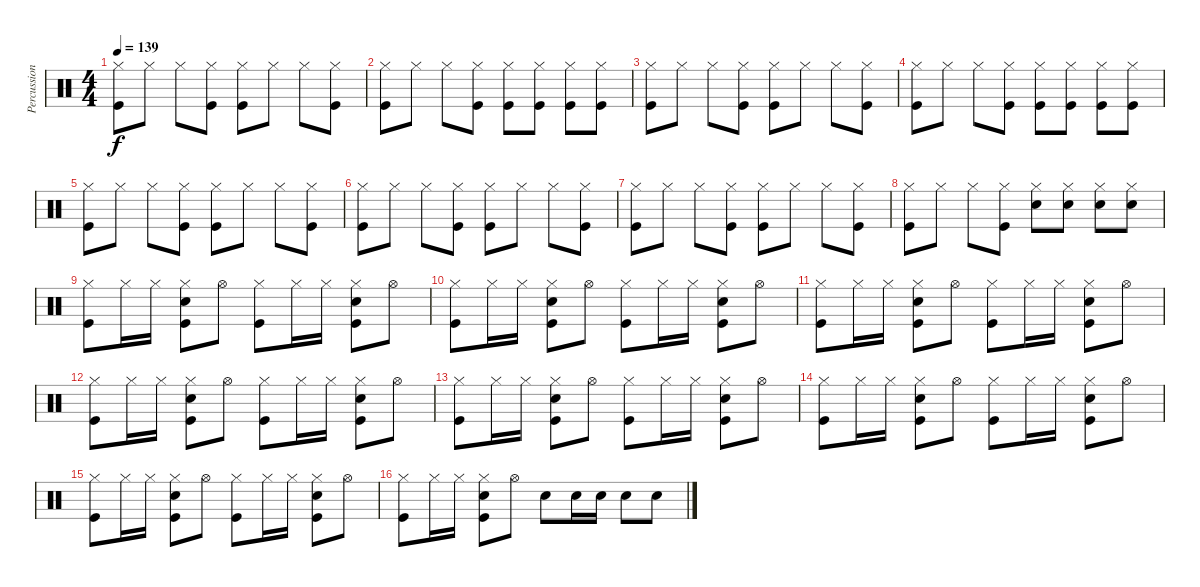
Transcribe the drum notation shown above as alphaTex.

\track ("Percussion" "Percussion") {instrument percussion}
\staff {score}
\articulation defaults
\ts (4 4)
\tempo 139
\clef neutral
\ks c
("Hi-Hat (closed)" "Kick (hit)").8{dy f} "Hi-Hat (closed)".8 "Hi-Hat (closed)".8 ("Hi-Hat (closed)" "Kick (hit)").8 ("Hi-Hat (closed)" "Kick (hit)").8 "Hi-Hat (closed)".8 "Hi-Hat (closed)".8 ("Hi-Hat (closed)" "Kick (hit)").8 |
("Hi-Hat (closed)" "Kick (hit)").8 "Hi-Hat (closed)".8 "Hi-Hat (closed)".8 ("Hi-Hat (closed)" "Kick (hit)").8 ("Hi-Hat (closed)" "Kick (hit)").8 ("Hi-Hat (closed)" "Kick (hit)").8 ("Hi-Hat (closed)" "Kick (hit)").8 ("Hi-Hat (closed)" "Kick (hit)").8 |
("Hi-Hat (closed)" "Kick (hit)").8 "Hi-Hat (closed)".8 "Hi-Hat (closed)".8 ("Hi-Hat (closed)" "Kick (hit)").8 ("Hi-Hat (closed)" "Kick (hit)").8 "Hi-Hat (closed)".8 "Hi-Hat (closed)".8 ("Hi-Hat (closed)" "Kick (hit)").8 |
("Hi-Hat (closed)" "Kick (hit)").8 "Hi-Hat (closed)".8 "Hi-Hat (closed)".8 ("Hi-Hat (closed)" "Kick (hit)").8 ("Hi-Hat (closed)" "Kick (hit)").8 ("Hi-Hat (closed)" "Kick (hit)").8 ("Hi-Hat (closed)" "Kick (hit)").8 ("Hi-Hat (closed)" "Kick (hit)").8 |
("Hi-Hat (closed)" "Kick (hit)").8 "Hi-Hat (closed)".8 "Hi-Hat (closed)".8 ("Hi-Hat (closed)" "Kick (hit)").8 ("Hi-Hat (closed)" "Kick (hit)").8 "Hi-Hat (closed)".8 "Hi-Hat (closed)".8 ("Hi-Hat (closed)" "Kick (hit)").8 |
("Hi-Hat (closed)" "Kick (hit)").8 "Hi-Hat (closed)".8 "Hi-Hat (closed)".8 ("Hi-Hat (closed)" "Kick (hit)").8 ("Hi-Hat (closed)" "Kick (hit)").8 "Hi-Hat (closed)".8 "Hi-Hat (closed)".8 ("Hi-Hat (closed)" "Kick (hit)").8 |
("Hi-Hat (closed)" "Kick (hit)").8 "Hi-Hat (closed)".8 "Hi-Hat (closed)".8 ("Hi-Hat (closed)" "Kick (hit)").8 ("Hi-Hat (closed)" "Kick (hit)").8 "Hi-Hat (closed)".8 "Hi-Hat (closed)".8 ("Hi-Hat (closed)" "Kick (hit)").8 |
("Hi-Hat (closed)" "Kick (hit)").8 "Hi-Hat (closed)".8 "Hi-Hat (closed)".8 ("Hi-Hat (closed)" "Kick (hit)").8 ("Hi-Hat (closed)" "Snare (hit) 2").8 ("Hi-Hat (closed)" "Snare (hit) 2").8 ("Hi-Hat (closed)" "Snare (hit) 2").8 ("Hi-Hat (closed)" "Snare (hit) 2").8 |
("Hi-Hat (closed)" "Kick (hit)").8 "Hi-Hat (closed)".16 "Hi-Hat (closed)".16 ("Hi-Hat (closed)" "Snare (hit) 2" "Kick (hit)").8 "Hi-Hat (open)".8 ("Hi-Hat (closed)" "Kick (hit)").8 "Hi-Hat (closed)".16 "Hi-Hat (closed)".16 ("Hi-Hat (closed)" "Snare (hit) 2" "Kick (hit)").8 "Hi-Hat (open)".8 |
("Hi-Hat (closed)" "Kick (hit)").8 "Hi-Hat (closed)".16 "Hi-Hat (closed)".16 ("Hi-Hat (closed)" "Snare (hit) 2" "Kick (hit)").8 "Hi-Hat (open)".8 ("Hi-Hat (closed)" "Kick (hit)").8 "Hi-Hat (closed)".16 "Hi-Hat (closed)".16 ("Hi-Hat (closed)" "Snare (hit) 2" "Kick (hit)").8 "Hi-Hat (open)".8 |
("Hi-Hat (closed)" "Kick (hit)").8 "Hi-Hat (closed)".16 "Hi-Hat (closed)".16 ("Hi-Hat (closed)" "Snare (hit) 2" "Kick (hit)").8 "Hi-Hat (open)".8 ("Hi-Hat (closed)" "Kick (hit)").8 "Hi-Hat (closed)".16 "Hi-Hat (closed)".16 ("Hi-Hat (closed)" "Snare (hit) 2" "Kick (hit)").8 "Hi-Hat (open)".8 |
("Hi-Hat (closed)" "Kick (hit)").8 "Hi-Hat (closed)".16 "Hi-Hat (closed)".16 ("Hi-Hat (closed)" "Snare (hit) 2" "Kick (hit)").8 "Hi-Hat (open)".8 ("Hi-Hat (closed)" "Kick (hit)").8 "Hi-Hat (closed)".16 "Hi-Hat (closed)".16 ("Hi-Hat (closed)" "Snare (hit) 2" "Kick (hit)").8 "Hi-Hat (open)".8 |
("Hi-Hat (closed)" "Kick (hit)").8 "Hi-Hat (closed)".16 "Hi-Hat (closed)".16 ("Hi-Hat (closed)" "Snare (hit) 2" "Kick (hit)").8 "Hi-Hat (open)".8 ("Hi-Hat (closed)" "Kick (hit)").8 "Hi-Hat (closed)".16 "Hi-Hat (closed)".16 ("Hi-Hat (closed)" "Snare (hit) 2" "Kick (hit)").8 "Hi-Hat (open)".8 |
("Hi-Hat (closed)" "Kick (hit)").8 "Hi-Hat (closed)".16 "Hi-Hat (closed)".16 ("Hi-Hat (closed)" "Snare (hit) 2" "Kick (hit)").8 "Hi-Hat (open)".8 ("Hi-Hat (closed)" "Kick (hit)").8 "Hi-Hat (closed)".16 "Hi-Hat (closed)".16 ("Hi-Hat (closed)" "Snare (hit) 2" "Kick (hit)").8 "Hi-Hat (open)".8 |
("Hi-Hat (closed)" "Kick (hit)").8 "Hi-Hat (closed)".16 "Hi-Hat (closed)".16 ("Hi-Hat (closed)" "Snare (hit) 2" "Kick (hit)").8 "Hi-Hat (open)".8 ("Hi-Hat (closed)" "Kick (hit)").8 "Hi-Hat (closed)".16 "Hi-Hat (closed)".16 ("Hi-Hat (closed)" "Snare (hit) 2" "Kick (hit)").8 "Hi-Hat (open)".8 |
("Hi-Hat (closed)" "Kick (hit)").8 "Hi-Hat (closed)".16 "Hi-Hat (closed)".16 ("Hi-Hat (closed)" "Snare (hit) 2" "Kick (hit)").8 "Hi-Hat (open)".8 "Snare (hit) 2".8 "Snare (hit) 2".16 "Snare (hit) 2".16 "Snare (hit) 2".8 "Snare (hit) 2".8
